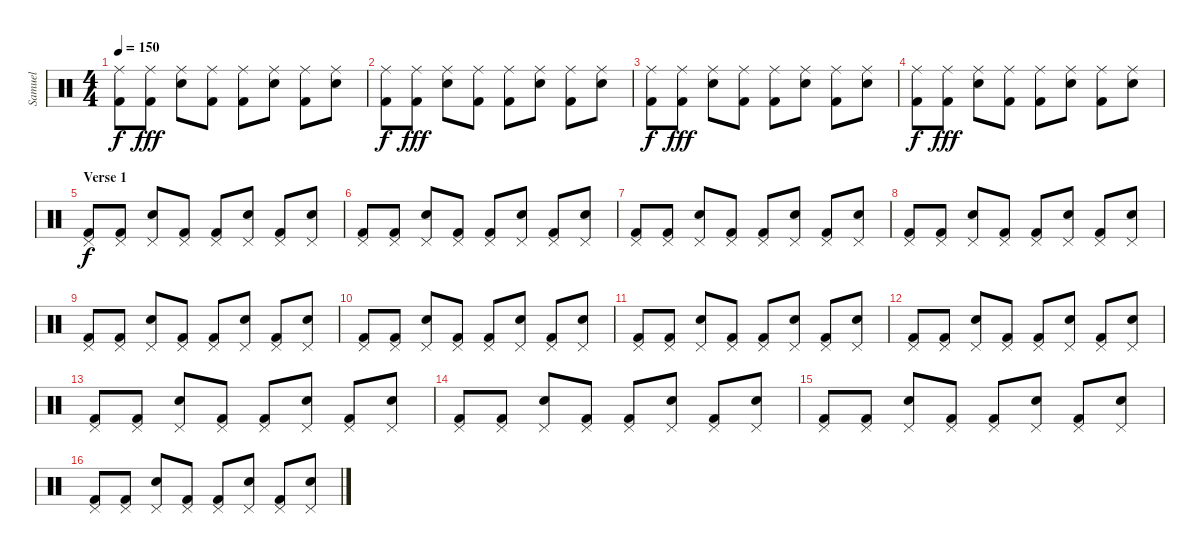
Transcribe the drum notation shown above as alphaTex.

\track ("Samuel" "Samuel") {instrument percussion}
\staff {score}
\articulation defaults
\ts (4 4)
\tempo 150
\clef neutral
\ks c
("Ride (middle)" "Kick (hit) 2").8{dy f} ("Ride (middle)" "Kick (hit) 2").8{dy fff} ("Ride (middle)" "Snare (hit) 2").8 ("Ride (middle)" "Kick (hit) 2").8 ("Ride (middle)" "Kick (hit) 2").8 ("Ride (middle)" "Snare (hit) 2").8 ("Ride (middle)" "Kick (hit) 2").8 ("Ride (middle)" "Snare (hit) 2").8 |
("Ride (middle)" "Kick (hit) 2").8{dy f} ("Ride (middle)" "Kick (hit) 2").8{dy fff} ("Ride (middle)" "Snare (hit) 2").8 ("Ride (middle)" "Kick (hit) 2").8 ("Ride (middle)" "Kick (hit) 2").8 ("Ride (middle)" "Snare (hit) 2").8 ("Ride (middle)" "Kick (hit) 2").8 ("Ride (middle)" "Snare (hit) 2").8 |
("Ride (middle)" "Kick (hit) 2").8{dy f} ("Ride (middle)" "Kick (hit) 2").8{dy fff} ("Ride (middle)" "Snare (hit) 2").8 ("Ride (middle)" "Kick (hit) 2").8 ("Ride (middle)" "Kick (hit) 2").8 ("Ride (middle)" "Snare (hit) 2").8 ("Ride (middle)" "Kick (hit) 2").8 ("Ride (middle)" "Snare (hit) 2").8 |
("Ride (middle)" "Kick (hit) 2").8{dy f} ("Ride (middle)" "Kick (hit) 2").8{dy fff} ("Ride (middle)" "Snare (hit) 2").8 ("Ride (middle)" "Kick (hit) 2").8 ("Ride (middle)" "Kick (hit) 2").8 ("Ride (middle)" "Snare (hit) 2").8 ("Ride (middle)" "Kick (hit) 2").8 ("Ride (middle)" "Snare (hit) 2").8 |
\section ("" "Verse 1")
("Pedal Hi-Hat (hit)" "Kick (hit) 2").8{dy f} ("Pedal Hi-Hat (hit)" "Kick (hit) 2").8 ("Pedal Hi-Hat (hit)" "Snare (hit) 2").8 ("Pedal Hi-Hat (hit)" "Kick (hit) 2").8 ("Pedal Hi-Hat (hit)" "Kick (hit) 2").8 ("Pedal Hi-Hat (hit)" "Snare (hit) 2").8 ("Pedal Hi-Hat (hit)" "Kick (hit) 2").8 ("Pedal Hi-Hat (hit)" "Snare (hit) 2").8 |
("Pedal Hi-Hat (hit)" "Kick (hit) 2").8 ("Pedal Hi-Hat (hit)" "Kick (hit) 2").8 ("Pedal Hi-Hat (hit)" "Snare (hit) 2").8 ("Pedal Hi-Hat (hit)" "Kick (hit) 2").8 ("Pedal Hi-Hat (hit)" "Kick (hit) 2").8 ("Pedal Hi-Hat (hit)" "Snare (hit) 2").8 ("Pedal Hi-Hat (hit)" "Kick (hit) 2").8 ("Pedal Hi-Hat (hit)" "Snare (hit) 2").8 |
("Pedal Hi-Hat (hit)" "Kick (hit) 2").8 ("Pedal Hi-Hat (hit)" "Kick (hit) 2").8 ("Pedal Hi-Hat (hit)" "Snare (hit) 2").8 ("Pedal Hi-Hat (hit)" "Kick (hit) 2").8 ("Pedal Hi-Hat (hit)" "Kick (hit) 2").8 ("Pedal Hi-Hat (hit)" "Snare (hit) 2").8 ("Pedal Hi-Hat (hit)" "Kick (hit) 2").8 ("Pedal Hi-Hat (hit)" "Snare (hit) 2").8 |
("Pedal Hi-Hat (hit)" "Kick (hit) 2").8 ("Pedal Hi-Hat (hit)" "Kick (hit) 2").8 ("Pedal Hi-Hat (hit)" "Snare (hit) 2").8 ("Pedal Hi-Hat (hit)" "Kick (hit) 2").8 ("Pedal Hi-Hat (hit)" "Kick (hit) 2").8 ("Pedal Hi-Hat (hit)" "Snare (hit) 2").8 ("Pedal Hi-Hat (hit)" "Kick (hit) 2").8 ("Pedal Hi-Hat (hit)" "Snare (hit) 2").8 |
("Pedal Hi-Hat (hit)" "Kick (hit) 2").8 ("Pedal Hi-Hat (hit)" "Kick (hit) 2").8 ("Pedal Hi-Hat (hit)" "Snare (hit) 2").8 ("Pedal Hi-Hat (hit)" "Kick (hit) 2").8 ("Pedal Hi-Hat (hit)" "Kick (hit) 2").8 ("Pedal Hi-Hat (hit)" "Snare (hit) 2").8 ("Pedal Hi-Hat (hit)" "Kick (hit) 2").8 ("Pedal Hi-Hat (hit)" "Snare (hit) 2").8 |
("Pedal Hi-Hat (hit)" "Kick (hit) 2").8 ("Pedal Hi-Hat (hit)" "Kick (hit) 2").8 ("Pedal Hi-Hat (hit)" "Snare (hit) 2").8 ("Pedal Hi-Hat (hit)" "Kick (hit) 2").8 ("Pedal Hi-Hat (hit)" "Kick (hit) 2").8 ("Pedal Hi-Hat (hit)" "Snare (hit) 2").8 ("Pedal Hi-Hat (hit)" "Kick (hit) 2").8 ("Pedal Hi-Hat (hit)" "Snare (hit) 2").8 |
("Pedal Hi-Hat (hit)" "Kick (hit) 2").8 ("Pedal Hi-Hat (hit)" "Kick (hit) 2").8 ("Pedal Hi-Hat (hit)" "Snare (hit) 2").8 ("Pedal Hi-Hat (hit)" "Kick (hit) 2").8 ("Pedal Hi-Hat (hit)" "Kick (hit) 2").8 ("Pedal Hi-Hat (hit)" "Snare (hit) 2").8 ("Pedal Hi-Hat (hit)" "Kick (hit) 2").8 ("Pedal Hi-Hat (hit)" "Snare (hit) 2").8 |
("Pedal Hi-Hat (hit)" "Kick (hit) 2").8 ("Pedal Hi-Hat (hit)" "Kick (hit) 2").8 ("Pedal Hi-Hat (hit)" "Snare (hit) 2").8 ("Pedal Hi-Hat (hit)" "Kick (hit) 2").8 ("Pedal Hi-Hat (hit)" "Kick (hit) 2").8 ("Pedal Hi-Hat (hit)" "Snare (hit) 2").8 ("Pedal Hi-Hat (hit)" "Kick (hit) 2").8 ("Pedal Hi-Hat (hit)" "Snare (hit) 2").8 |
("Pedal Hi-Hat (hit)" "Kick (hit) 2").8 ("Pedal Hi-Hat (hit)" "Kick (hit) 2").8 ("Pedal Hi-Hat (hit)" "Snare (hit) 2").8 ("Pedal Hi-Hat (hit)" "Kick (hit) 2").8 ("Pedal Hi-Hat (hit)" "Kick (hit) 2").8 ("Pedal Hi-Hat (hit)" "Snare (hit) 2").8 ("Pedal Hi-Hat (hit)" "Kick (hit) 2").8 ("Pedal Hi-Hat (hit)" "Snare (hit) 2").8 |
("Pedal Hi-Hat (hit)" "Kick (hit) 2").8 ("Pedal Hi-Hat (hit)" "Kick (hit) 2").8 ("Pedal Hi-Hat (hit)" "Snare (hit) 2").8 ("Pedal Hi-Hat (hit)" "Kick (hit) 2").8 ("Pedal Hi-Hat (hit)" "Kick (hit) 2").8 ("Pedal Hi-Hat (hit)" "Snare (hit) 2").8 ("Pedal Hi-Hat (hit)" "Kick (hit) 2").8 ("Pedal Hi-Hat (hit)" "Snare (hit) 2").8 |
("Pedal Hi-Hat (hit)" "Kick (hit) 2").8 ("Pedal Hi-Hat (hit)" "Kick (hit) 2").8 ("Pedal Hi-Hat (hit)" "Snare (hit) 2").8 ("Pedal Hi-Hat (hit)" "Kick (hit) 2").8 ("Pedal Hi-Hat (hit)" "Kick (hit) 2").8 ("Pedal Hi-Hat (hit)" "Snare (hit) 2").8 ("Pedal Hi-Hat (hit)" "Kick (hit) 2").8 ("Pedal Hi-Hat (hit)" "Snare (hit) 2").8 |
("Pedal Hi-Hat (hit)" "Kick (hit) 2").8 ("Pedal Hi-Hat (hit)" "Kick (hit) 2").8 ("Pedal Hi-Hat (hit)" "Snare (hit) 2").8 ("Pedal Hi-Hat (hit)" "Kick (hit) 2").8 ("Pedal Hi-Hat (hit)" "Kick (hit) 2").8 ("Pedal Hi-Hat (hit)" "Snare (hit) 2").8 ("Pedal Hi-Hat (hit)" "Kick (hit) 2").8 ("Pedal Hi-Hat (hit)" "Snare (hit) 2").8
